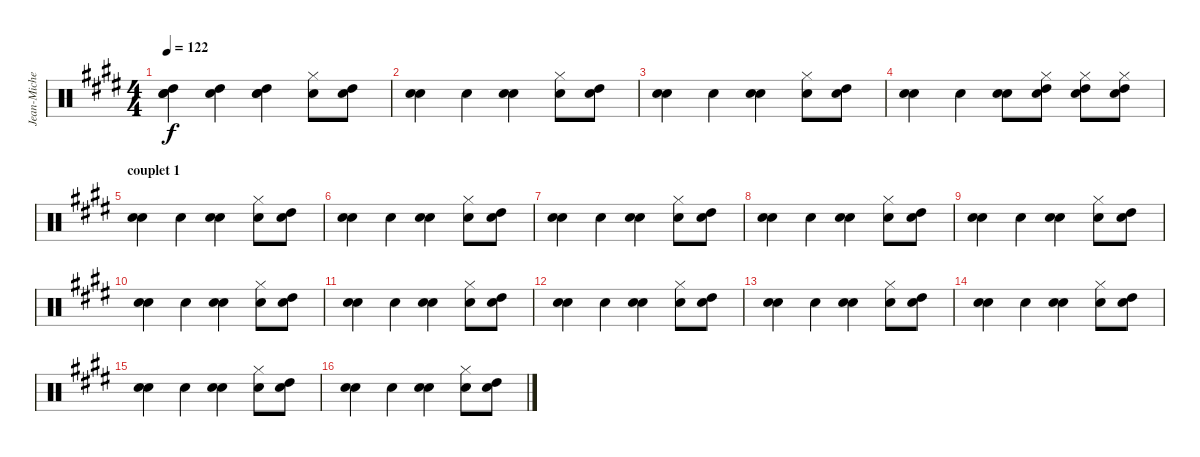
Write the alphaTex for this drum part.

\track ("Jean-Michel Truong (Batterie)" "Jean-Miche") {instrument percussion}
\staff {score}
\articulation defaults
\ts (4 4)
\tempo 122
\clef neutral
\ks e
("Snare (hit) 2" "Electric Snare (hit)" "High Tom (hit)").4{dy f} ("Electric Snare (hit)" "High Tom (hit)").4 ("Snare (hit) 2" "Electric Snare (hit)" "High Tom (hit)").4 ("Electric Snare (hit)" "Hi-Hat (closed)").8 ("Electric Snare (hit)" "High Tom (hit)").8 |
("Snare (hit) 2" "Electric Snare (hit)").4 "Electric Snare (hit)".4 ("Snare (hit) 2" "Electric Snare (hit)").4 ("Electric Snare (hit)" "Hi-Hat (closed)").8 ("Electric Snare (hit)" "High Tom (hit)").8 |
("Snare (hit) 2" "Electric Snare (hit)").4 "Electric Snare (hit)".4 ("Snare (hit) 2" "Electric Snare (hit)").4 ("Electric Snare (hit)" "Hi-Hat (closed)").8 ("Electric Snare (hit)" "High Tom (hit)").8 |
("Snare (hit) 2" "Electric Snare (hit)").4 "Electric Snare (hit)".4 ("Snare (hit) 2" "Electric Snare (hit)").8 ("Electric Snare (hit)" "Hi-Hat (closed)" "High Tom (hit)").8 ("Electric Snare (hit)" "Hi-Hat (closed)" "High Tom (hit)").8 ("Electric Snare (hit)" "Hi-Hat (closed)" "High Tom (hit)").8 |
\section ("" "couplet 1")
("Snare (hit) 2" "Electric Snare (hit)").4 "Electric Snare (hit)".4 ("Snare (hit) 2" "Electric Snare (hit)").4 ("Electric Snare (hit)" "Hi-Hat (closed)").8 ("Electric Snare (hit)" "High Tom (hit)").8 |
("Snare (hit) 2" "Electric Snare (hit)").4 "Electric Snare (hit)".4 ("Snare (hit) 2" "Electric Snare (hit)").4 ("Electric Snare (hit)" "Hi-Hat (closed)").8 ("Electric Snare (hit)" "High Tom (hit)").8 |
("Snare (hit) 2" "Electric Snare (hit)").4 "Electric Snare (hit)".4 ("Snare (hit) 2" "Electric Snare (hit)").4 ("Electric Snare (hit)" "Hi-Hat (closed)").8 ("Electric Snare (hit)" "High Tom (hit)").8 |
("Snare (hit) 2" "Electric Snare (hit)").4 "Electric Snare (hit)".4 ("Snare (hit) 2" "Electric Snare (hit)").4 ("Electric Snare (hit)" "Hi-Hat (closed)").8 ("Electric Snare (hit)" "High Tom (hit)").8 |
("Snare (hit) 2" "Electric Snare (hit)").4 "Electric Snare (hit)".4 ("Snare (hit) 2" "Electric Snare (hit)").4 ("Electric Snare (hit)" "Hi-Hat (closed)").8 ("Electric Snare (hit)" "High Tom (hit)").8 |
("Snare (hit) 2" "Electric Snare (hit)").4 "Electric Snare (hit)".4 ("Snare (hit) 2" "Electric Snare (hit)").4 ("Electric Snare (hit)" "Hi-Hat (closed)").8 ("Electric Snare (hit)" "High Tom (hit)").8 |
("Snare (hit) 2" "Electric Snare (hit)").4 "Electric Snare (hit)".4 ("Snare (hit) 2" "Electric Snare (hit)").4 ("Electric Snare (hit)" "Hi-Hat (closed)").8 ("Electric Snare (hit)" "High Tom (hit)").8 |
("Snare (hit) 2" "Electric Snare (hit)").4 "Electric Snare (hit)".4 ("Snare (hit) 2" "Electric Snare (hit)").4 ("Electric Snare (hit)" "Hi-Hat (closed)").8 ("Electric Snare (hit)" "High Tom (hit)").8 |
("Snare (hit) 2" "Electric Snare (hit)").4 "Electric Snare (hit)".4 ("Snare (hit) 2" "Electric Snare (hit)").4 ("Electric Snare (hit)" "Hi-Hat (closed)").8 ("Electric Snare (hit)" "High Tom (hit)").8 |
("Snare (hit) 2" "Electric Snare (hit)").4 "Electric Snare (hit)".4 ("Snare (hit) 2" "Electric Snare (hit)").4 ("Electric Snare (hit)" "Hi-Hat (closed)").8 ("Electric Snare (hit)" "High Tom (hit)").8 |
("Snare (hit) 2" "Electric Snare (hit)").4 "Electric Snare (hit)".4 ("Snare (hit) 2" "Electric Snare (hit)").4 ("Electric Snare (hit)" "Hi-Hat (closed)").8 ("Electric Snare (hit)" "High Tom (hit)").8 |
("Snare (hit) 2" "Electric Snare (hit)").4 "Electric Snare (hit)".4 ("Snare (hit) 2" "Electric Snare (hit)").4 ("Electric Snare (hit)" "Hi-Hat (closed)").8 ("Electric Snare (hit)" "High Tom (hit)").8
